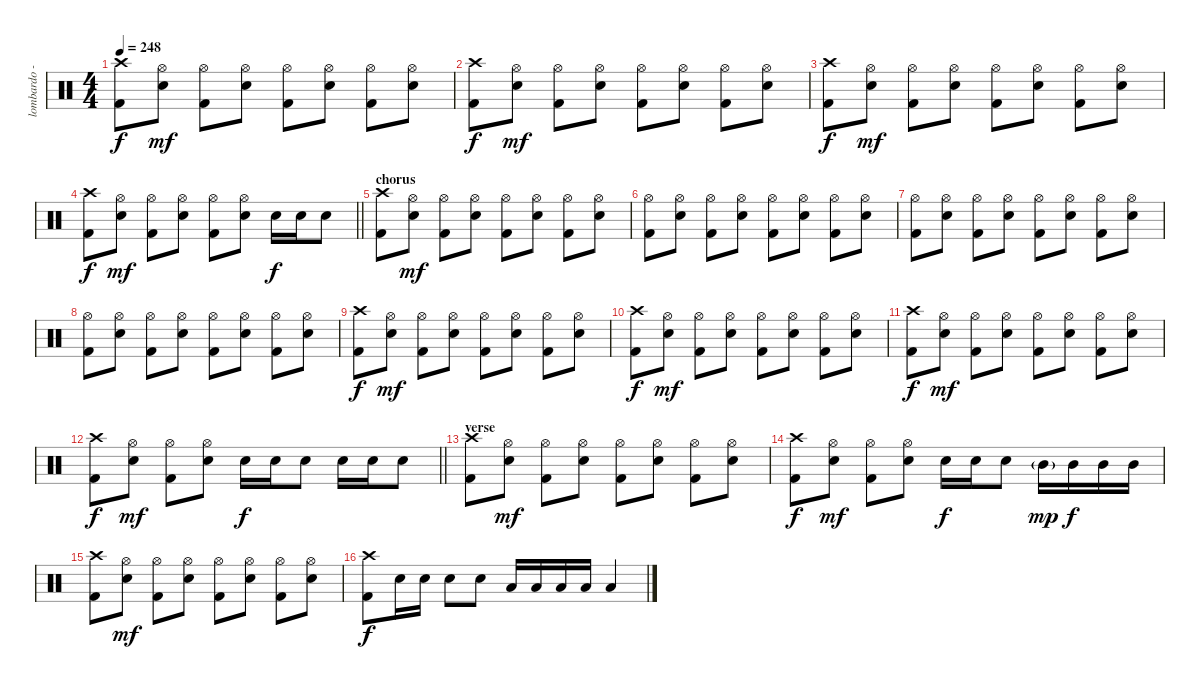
\track ("lombardo - drums" "lombardo -") {instrument percussion}
\staff {score}
\articulation defaults
\ts (4 4)
\tempo 248
\clef neutral
\ks c
("Crash high (hit)" "Kick (hit) 2").8{dy f} ("Hi-Hat (open)" "Snare (hit) 2").8{dy mf} ("Hi-Hat (open)" "Kick (hit) 2").8 ("Hi-Hat (open)" "Snare (hit) 2").8 ("Hi-Hat (open)" "Kick (hit) 2").8 ("Hi-Hat (open)" "Snare (hit) 2").8 ("Hi-Hat (open)" "Kick (hit) 2").8 ("Hi-Hat (open)" "Snare (hit) 2").8 |
("Crash high (hit)" "Kick (hit) 2").8{dy f} ("Hi-Hat (open)" "Snare (hit) 2").8{dy mf} ("Hi-Hat (open)" "Kick (hit) 2").8 ("Hi-Hat (open)" "Snare (hit) 2").8 ("Hi-Hat (open)" "Kick (hit) 2").8 ("Hi-Hat (open)" "Snare (hit) 2").8 ("Hi-Hat (open)" "Kick (hit) 2").8 ("Hi-Hat (open)" "Snare (hit) 2").8 |
("Crash high (hit)" "Kick (hit) 2").8{dy f} ("Hi-Hat (open)" "Snare (hit) 2").8{dy mf} ("Hi-Hat (open)" "Kick (hit) 2").8 ("Hi-Hat (open)" "Snare (hit) 2").8 ("Hi-Hat (open)" "Kick (hit) 2").8 ("Hi-Hat (open)" "Snare (hit) 2").8 ("Hi-Hat (open)" "Kick (hit) 2").8 ("Hi-Hat (open)" "Snare (hit) 2").8 |
\barLineRight lightlight
("Crash high (hit)" "Kick (hit) 2").8{dy f} ("Hi-Hat (open)" "Snare (hit) 2").8{dy mf} ("Hi-Hat (open)" "Kick (hit) 2").8 ("Hi-Hat (open)" "Snare (hit) 2").8 ("Hi-Hat (open)" "Kick (hit) 2").8 ("Hi-Hat (open)" "Snare (hit) 2").8 "Snare (hit) 2".16{dy f} "Snare (hit) 2".16 "Snare (hit) 2".8 |
\section ("" "chorus")
("Crash high (hit)" "Kick (hit) 2").8 ("Hi-Hat (open)" "Snare (hit) 2").8{dy mf} ("Hi-Hat (open)" "Kick (hit) 2").8 ("Hi-Hat (open)" "Snare (hit) 2").8 ("Hi-Hat (open)" "Kick (hit) 2").8 ("Hi-Hat (open)" "Snare (hit) 2").8 ("Hi-Hat (open)" "Kick (hit) 2").8 ("Hi-Hat (open)" "Snare (hit) 2").8 |
("Hi-Hat (open)" "Kick (hit) 2").8 ("Hi-Hat (open)" "Snare (hit) 2").8 ("Hi-Hat (open)" "Kick (hit) 2").8 ("Hi-Hat (open)" "Snare (hit) 2").8 ("Hi-Hat (open)" "Kick (hit) 2").8 ("Hi-Hat (open)" "Snare (hit) 2").8 ("Hi-Hat (open)" "Kick (hit) 2").8 ("Hi-Hat (open)" "Snare (hit) 2").8 |
("Hi-Hat (open)" "Kick (hit) 2").8 ("Hi-Hat (open)" "Snare (hit) 2").8 ("Hi-Hat (open)" "Kick (hit) 2").8 ("Hi-Hat (open)" "Snare (hit) 2").8 ("Hi-Hat (open)" "Kick (hit) 2").8 ("Hi-Hat (open)" "Snare (hit) 2").8 ("Hi-Hat (open)" "Kick (hit) 2").8 ("Hi-Hat (open)" "Snare (hit) 2").8 |
("Hi-Hat (open)" "Kick (hit) 2").8 ("Hi-Hat (open)" "Snare (hit) 2").8 ("Hi-Hat (open)" "Kick (hit) 2").8 ("Hi-Hat (open)" "Snare (hit) 2").8 ("Hi-Hat (open)" "Kick (hit) 2").8 ("Hi-Hat (open)" "Snare (hit) 2").8 ("Hi-Hat (open)" "Kick (hit) 2").8 ("Hi-Hat (open)" "Snare (hit) 2").8 |
("Crash high (hit)" "Kick (hit) 2").8{dy f} ("Hi-Hat (open)" "Snare (hit) 2").8{dy mf} ("Hi-Hat (open)" "Kick (hit) 2").8 ("Hi-Hat (open)" "Snare (hit) 2").8 ("Hi-Hat (open)" "Kick (hit) 2").8 ("Hi-Hat (open)" "Snare (hit) 2").8 ("Hi-Hat (open)" "Kick (hit) 2").8 ("Hi-Hat (open)" "Snare (hit) 2").8 |
("Crash high (hit)" "Kick (hit) 2").8{dy f} ("Hi-Hat (open)" "Snare (hit) 2").8{dy mf} ("Hi-Hat (open)" "Kick (hit) 2").8 ("Hi-Hat (open)" "Snare (hit) 2").8 ("Hi-Hat (open)" "Kick (hit) 2").8 ("Hi-Hat (open)" "Snare (hit) 2").8 ("Hi-Hat (open)" "Kick (hit) 2").8 ("Hi-Hat (open)" "Snare (hit) 2").8 |
("Crash high (hit)" "Kick (hit) 2").8{dy f} ("Hi-Hat (open)" "Snare (hit) 2").8{dy mf} ("Hi-Hat (open)" "Kick (hit) 2").8 ("Hi-Hat (open)" "Snare (hit) 2").8 ("Hi-Hat (open)" "Kick (hit) 2").8 ("Hi-Hat (open)" "Snare (hit) 2").8 ("Hi-Hat (open)" "Kick (hit) 2").8 ("Hi-Hat (open)" "Snare (hit) 2").8 |
\barLineRight lightlight
("Crash high (hit)" "Kick (hit) 2").8{dy f} ("Hi-Hat (open)" "Snare (hit) 2").8{dy mf} ("Hi-Hat (open)" "Kick (hit) 2").8 ("Hi-Hat (open)" "Snare (hit) 2").8 "Snare (hit) 2".16{dy f} "Snare (hit) 2".16 "Snare (hit) 2".8 "Snare (hit) 2".16 "Snare (hit) 2".16 "Snare (hit) 2".8 |
\section ("" "verse")
("Crash high (hit)" "Kick (hit) 2").8 ("Hi-Hat (open)" "Snare (hit) 2").8{dy mf} ("Hi-Hat (open)" "Kick (hit) 2").8 ("Hi-Hat (open)" "Snare (hit) 2").8 ("Hi-Hat (open)" "Kick (hit) 2").8 ("Hi-Hat (open)" "Snare (hit) 2").8 ("Hi-Hat (open)" "Kick (hit) 2").8 ("Hi-Hat (open)" "Snare (hit) 2").8 |
("Crash high (hit)" "Kick (hit) 2").8{dy f} ("Hi-Hat (open)" "Snare (hit) 2").8{dy mf} ("Hi-Hat (open)" "Kick (hit) 2").8 ("Hi-Hat (open)" "Snare (hit) 2").8 "Snare (hit) 2".16{dy f} "Snare (hit) 2".16 "Snare (hit) 2".8 "Mid Tom (hit)"{g}.16{dy mp} "Mid Tom (hit)".16{dy f} "Mid Tom (hit)".16 "Mid Tom (hit)".16 |
("Crash high (hit)" "Kick (hit) 2").8 ("Hi-Hat (open)" "Snare (hit) 2").8{dy mf} ("Hi-Hat (open)" "Kick (hit) 2").8 ("Hi-Hat (open)" "Snare (hit) 2").8 ("Hi-Hat (open)" "Kick (hit) 2").8 ("Hi-Hat (open)" "Snare (hit) 2").8 ("Hi-Hat (open)" "Kick (hit) 2").8 ("Hi-Hat (open)" "Snare (hit) 2").8 |
("Crash high (hit)" "Kick (hit) 2").8{dy f} "Snare (hit) 2".16 "Snare (hit) 2".16 "Snare (hit) 2".8 "Snare (hit) 2".8 "Low Tom (hit)".16 "Low Tom (hit)".16 "Low Tom (hit)".16 "Low Tom (hit)".16 "Low Tom (hit)".4
